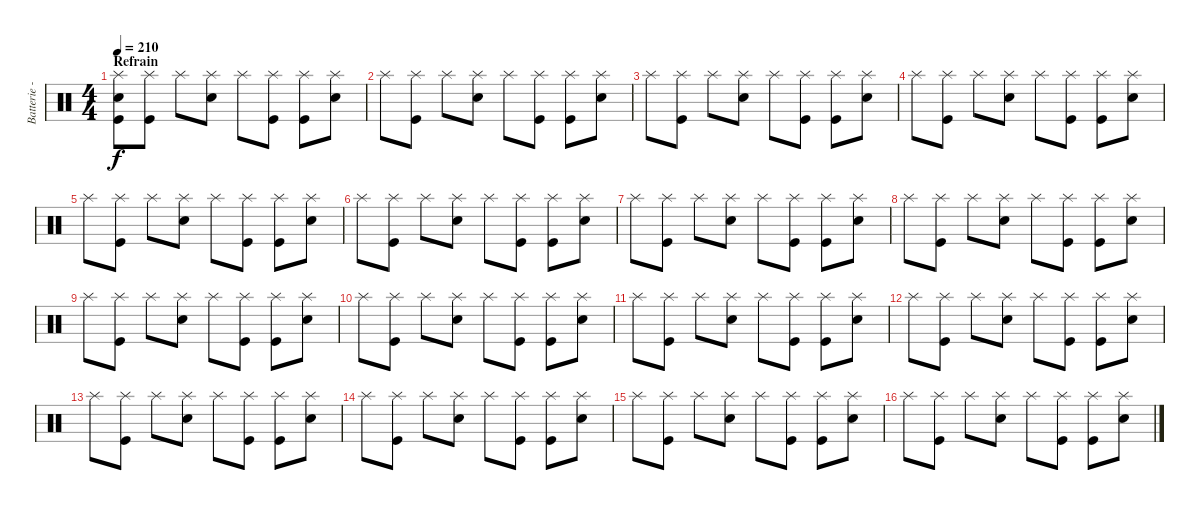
\track ("Batterie - Guillaume" "Batterie -") {instrument percussion}
\staff {score}
\articulation defaults
\ts (4 4)
\section ("" "Refrain")
\tempo 210
\clef neutral
\ks c
("Splash (hit)" "Snare (hit) 2" "Kick (hit)").8{dy f} ("Splash (hit)" "Kick (hit)").8 "Splash (hit)".8 ("Splash (hit)" "Snare (hit) 2").8 "Splash (hit)".8 ("Splash (hit)" "Kick (hit)").8 ("Splash (hit)" "Kick (hit)").8 ("Splash (hit)" "Snare (hit) 2").8 |
"Splash (hit)".8 ("Splash (hit)" "Kick (hit)").8 "Splash (hit)".8 ("Splash (hit)" "Snare (hit) 2").8 "Splash (hit)".8 ("Splash (hit)" "Kick (hit)").8 ("Splash (hit)" "Kick (hit)").8 ("Splash (hit)" "Snare (hit) 2").8 |
"Splash (hit)".8 ("Splash (hit)" "Kick (hit)").8 "Splash (hit)".8 ("Splash (hit)" "Snare (hit) 2").8 "Splash (hit)".8 ("Splash (hit)" "Kick (hit)").8 ("Splash (hit)" "Kick (hit)").8 ("Splash (hit)" "Snare (hit) 2").8 |
"Splash (hit)".8 ("Splash (hit)" "Kick (hit)").8 "Splash (hit)".8 ("Splash (hit)" "Snare (hit) 2").8 "Splash (hit)".8 ("Splash (hit)" "Kick (hit)").8 ("Splash (hit)" "Kick (hit)").8 ("Splash (hit)" "Snare (hit) 2").8 |
"Splash (hit)".8 ("Splash (hit)" "Kick (hit)").8 "Splash (hit)".8 ("Splash (hit)" "Snare (hit) 2").8 "Splash (hit)".8 ("Splash (hit)" "Kick (hit)").8 ("Splash (hit)" "Kick (hit)").8 ("Splash (hit)" "Snare (hit) 2").8 |
"Splash (hit)".8 ("Splash (hit)" "Kick (hit)").8 "Splash (hit)".8 ("Splash (hit)" "Snare (hit) 2").8 "Splash (hit)".8 ("Splash (hit)" "Kick (hit)").8 ("Splash (hit)" "Kick (hit)").8 ("Splash (hit)" "Snare (hit) 2").8 |
"Splash (hit)".8 ("Splash (hit)" "Kick (hit)").8 "Splash (hit)".8 ("Splash (hit)" "Snare (hit) 2").8 "Splash (hit)".8 ("Splash (hit)" "Kick (hit)").8 ("Splash (hit)" "Kick (hit)").8 ("Splash (hit)" "Snare (hit) 2").8 |
"Splash (hit)".8 ("Splash (hit)" "Kick (hit)").8 "Splash (hit)".8 ("Splash (hit)" "Snare (hit) 2").8 "Splash (hit)".8 ("Splash (hit)" "Kick (hit)").8 ("Splash (hit)" "Kick (hit)").8 ("Splash (hit)" "Snare (hit) 2").8 |
"Splash (hit)".8 ("Splash (hit)" "Kick (hit)").8 "Splash (hit)".8 ("Splash (hit)" "Snare (hit) 2").8 "Splash (hit)".8 ("Splash (hit)" "Kick (hit)").8 ("Splash (hit)" "Kick (hit)").8 ("Splash (hit)" "Snare (hit) 2").8 |
"Splash (hit)".8 ("Splash (hit)" "Kick (hit)").8 "Splash (hit)".8 ("Splash (hit)" "Snare (hit) 2").8 "Splash (hit)".8 ("Splash (hit)" "Kick (hit)").8 ("Splash (hit)" "Kick (hit)").8 ("Splash (hit)" "Snare (hit) 2").8 |
"Splash (hit)".8 ("Splash (hit)" "Kick (hit)").8 "Splash (hit)".8 ("Splash (hit)" "Snare (hit) 2").8 "Splash (hit)".8 ("Splash (hit)" "Kick (hit)").8 ("Splash (hit)" "Kick (hit)").8 ("Splash (hit)" "Snare (hit) 2").8 |
"Splash (hit)".8 ("Splash (hit)" "Kick (hit)").8 "Splash (hit)".8 ("Splash (hit)" "Snare (hit) 2").8 "Splash (hit)".8 ("Splash (hit)" "Kick (hit)").8 ("Splash (hit)" "Kick (hit)").8 ("Splash (hit)" "Snare (hit) 2").8 |
"Splash (hit)".8 ("Splash (hit)" "Kick (hit)").8 "Splash (hit)".8 ("Splash (hit)" "Snare (hit) 2").8 "Splash (hit)".8 ("Splash (hit)" "Kick (hit)").8 ("Splash (hit)" "Kick (hit)").8 ("Splash (hit)" "Snare (hit) 2").8 |
"Splash (hit)".8 ("Splash (hit)" "Kick (hit)").8 "Splash (hit)".8 ("Splash (hit)" "Snare (hit) 2").8 "Splash (hit)".8 ("Splash (hit)" "Kick (hit)").8 ("Splash (hit)" "Kick (hit)").8 ("Splash (hit)" "Snare (hit) 2").8 |
"Splash (hit)".8 ("Splash (hit)" "Kick (hit)").8 "Splash (hit)".8 ("Splash (hit)" "Snare (hit) 2").8 "Splash (hit)".8 ("Splash (hit)" "Kick (hit)").8 ("Splash (hit)" "Kick (hit)").8 ("Splash (hit)" "Snare (hit) 2").8 |
"Splash (hit)".8 ("Splash (hit)" "Kick (hit)").8 "Splash (hit)".8 ("Splash (hit)" "Snare (hit) 2").8 "Splash (hit)".8 ("Splash (hit)" "Kick (hit)").8 ("Splash (hit)" "Kick (hit)").8 ("Splash (hit)" "Snare (hit) 2").8
